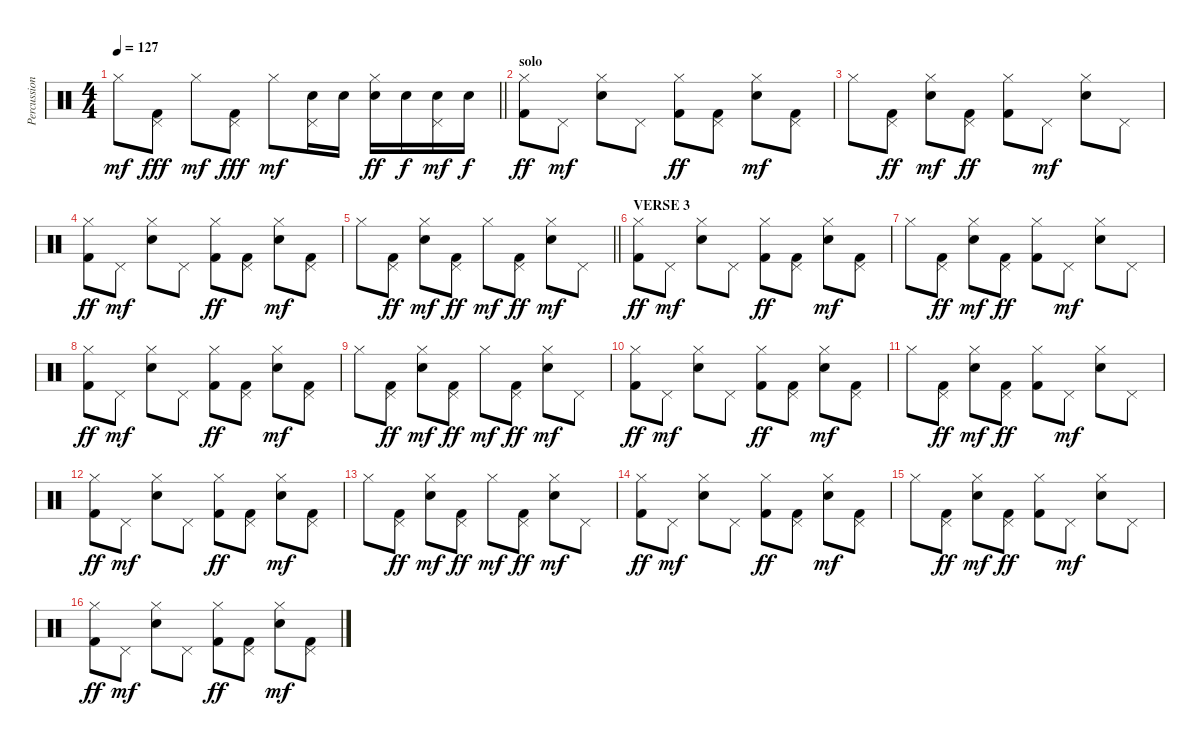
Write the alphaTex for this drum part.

\track ("Percussion" "Percussion") {instrument percussion}
\staff {score}
\articulation defaults
\ts (4 4)
\tempo 127
\clef neutral
\barLineRight lightlight
\ks c "Hi-Hat (closed)".8{dy mf}
("Pedal Hi-Hat (hit)" "Kick (hit) 2").8{dy fff} "Hi-Hat (closed)".8{dy mf} ("Pedal Hi-Hat (hit)" "Kick (hit) 2").8{dy fff} "Hi-Hat (closed)".8{dy mf} ("Pedal Hi-Hat (hit)" "Snare (hit) 2").16 "Snare (hit) 2".16 ("Hi-Hat (closed)" "Electric Snare (hit)").16{dy ff} "Snare (hit) 2".16{dy f} ("Pedal Hi-Hat (hit)" "Snare (hit) 2").16{dy mf} "Snare (hit) 2".16{dy f} |
\section ("" "solo")
("Hi-Hat (closed)" "Kick (hit) 2").8{dy ff} "Pedal Hi-Hat (hit)".8{dy mf} ("Hi-Hat (closed)" "Snare (hit) 2").8 "Pedal Hi-Hat (hit)".8 ("Hi-Hat (closed)" "Kick (hit) 2").8{dy ff} ("Pedal Hi-Hat (hit)" "Kick (hit) 2").8 ("Hi-Hat (closed)" "Snare (hit) 2").8{dy mf} ("Pedal Hi-Hat (hit)" "Kick (hit) 2").8 |
"Hi-Hat (closed)".8 ("Pedal Hi-Hat (hit)" "Kick (hit) 2").8{dy ff} ("Hi-Hat (closed)" "Snare (hit) 2").8{dy mf} ("Pedal Hi-Hat (hit)" "Kick (hit) 2").8{dy ff} ("Hi-Hat (closed)" "Kick (hit) 2").8 "Pedal Hi-Hat (hit)".8{dy mf} ("Hi-Hat (closed)" "Snare (hit) 2").8 "Pedal Hi-Hat (hit)".8 |
("Hi-Hat (closed)" "Kick (hit) 2").8{dy ff} "Pedal Hi-Hat (hit)".8{dy mf} ("Hi-Hat (closed)" "Snare (hit) 2").8 "Pedal Hi-Hat (hit)".8 ("Hi-Hat (closed)" "Kick (hit) 2").8{dy ff} ("Pedal Hi-Hat (hit)" "Kick (hit) 2").8 ("Hi-Hat (closed)" "Snare (hit) 2").8{dy mf} ("Pedal Hi-Hat (hit)" "Kick (hit) 2").8 |
\barLineRight lightlight "Hi-Hat (closed)".8
("Pedal Hi-Hat (hit)" "Kick (hit) 2").8{dy ff} ("Hi-Hat (closed)" "Snare (hit) 2").8{dy mf} ("Pedal Hi-Hat (hit)" "Kick (hit) 2").8{dy ff} "Hi-Hat (closed)".8{dy mf} ("Pedal Hi-Hat (hit)" "Kick (hit) 2").8{dy ff} ("Hi-Hat (closed)" "Snare (hit) 2").8{dy mf} "Pedal Hi-Hat (hit)".8 |
\section ("" "VERSE 3")
("Hi-Hat (closed)" "Kick (hit) 2").8{dy ff} "Pedal Hi-Hat (hit)".8{dy mf} ("Hi-Hat (closed)" "Snare (hit) 2").8 "Pedal Hi-Hat (hit)".8 ("Hi-Hat (closed)" "Kick (hit) 2").8{dy ff} ("Pedal Hi-Hat (hit)" "Kick (hit) 2").8 ("Hi-Hat (closed)" "Snare (hit) 2").8{dy mf} ("Pedal Hi-Hat (hit)" "Kick (hit) 2").8 |
"Hi-Hat (closed)".8 ("Pedal Hi-Hat (hit)" "Kick (hit) 2").8{dy ff} ("Hi-Hat (closed)" "Snare (hit) 2").8{dy mf} ("Pedal Hi-Hat (hit)" "Kick (hit) 2").8{dy ff} ("Hi-Hat (closed)" "Kick (hit) 2").8 "Pedal Hi-Hat (hit)".8{dy mf} ("Hi-Hat (closed)" "Snare (hit) 2").8 "Pedal Hi-Hat (hit)".8 |
("Hi-Hat (closed)" "Kick (hit) 2").8{dy ff} "Pedal Hi-Hat (hit)".8{dy mf} ("Hi-Hat (closed)" "Snare (hit) 2").8 "Pedal Hi-Hat (hit)".8 ("Hi-Hat (closed)" "Kick (hit) 2").8{dy ff} ("Pedal Hi-Hat (hit)" "Kick (hit) 2").8 ("Hi-Hat (closed)" "Snare (hit) 2").8{dy mf} ("Pedal Hi-Hat (hit)" "Kick (hit) 2").8 |
"Hi-Hat (closed)".8 ("Pedal Hi-Hat (hit)" "Kick (hit) 2").8{dy ff} ("Hi-Hat (closed)" "Snare (hit) 2").8{dy mf} ("Pedal Hi-Hat (hit)" "Kick (hit) 2").8{dy ff} "Hi-Hat (closed)".8{dy mf} ("Pedal Hi-Hat (hit)" "Kick (hit) 2").8{dy ff} ("Hi-Hat (closed)" "Snare (hit) 2").8{dy mf} "Pedal Hi-Hat (hit)".8 |
("Hi-Hat (closed)" "Kick (hit) 2").8{dy ff} "Pedal Hi-Hat (hit)".8{dy mf} ("Hi-Hat (closed)" "Snare (hit) 2").8 "Pedal Hi-Hat (hit)".8 ("Hi-Hat (closed)" "Kick (hit) 2").8{dy ff} ("Pedal Hi-Hat (hit)" "Kick (hit) 2").8 ("Hi-Hat (closed)" "Snare (hit) 2").8{dy mf} ("Pedal Hi-Hat (hit)" "Kick (hit) 2").8 |
"Hi-Hat (closed)".8 ("Pedal Hi-Hat (hit)" "Kick (hit) 2").8{dy ff} ("Hi-Hat (closed)" "Snare (hit) 2").8{dy mf} ("Pedal Hi-Hat (hit)" "Kick (hit) 2").8{dy ff} ("Hi-Hat (closed)" "Kick (hit) 2").8 "Pedal Hi-Hat (hit)".8{dy mf} ("Hi-Hat (closed)" "Snare (hit) 2").8 "Pedal Hi-Hat (hit)".8 |
("Hi-Hat (closed)" "Kick (hit) 2").8{dy ff} "Pedal Hi-Hat (hit)".8{dy mf} ("Hi-Hat (closed)" "Snare (hit) 2").8 "Pedal Hi-Hat (hit)".8 ("Hi-Hat (closed)" "Kick (hit) 2").8{dy ff} ("Pedal Hi-Hat (hit)" "Kick (hit) 2").8 ("Hi-Hat (closed)" "Snare (hit) 2").8{dy mf} ("Pedal Hi-Hat (hit)" "Kick (hit) 2").8 |
"Hi-Hat (closed)".8 ("Pedal Hi-Hat (hit)" "Kick (hit) 2").8{dy ff} ("Hi-Hat (closed)" "Snare (hit) 2").8{dy mf} ("Pedal Hi-Hat (hit)" "Kick (hit) 2").8{dy ff} "Hi-Hat (closed)".8{dy mf} ("Pedal Hi-Hat (hit)" "Kick (hit) 2").8{dy ff} ("Hi-Hat (closed)" "Snare (hit) 2").8{dy mf} "Pedal Hi-Hat (hit)".8 |
("Hi-Hat (closed)" "Kick (hit) 2").8{dy ff} "Pedal Hi-Hat (hit)".8{dy mf} ("Hi-Hat (closed)" "Snare (hit) 2").8 "Pedal Hi-Hat (hit)".8 ("Hi-Hat (closed)" "Kick (hit) 2").8{dy ff} ("Pedal Hi-Hat (hit)" "Kick (hit) 2").8 ("Hi-Hat (closed)" "Snare (hit) 2").8{dy mf} ("Pedal Hi-Hat (hit)" "Kick (hit) 2").8 |
"Hi-Hat (closed)".8 ("Pedal Hi-Hat (hit)" "Kick (hit) 2").8{dy ff} ("Hi-Hat (closed)" "Snare (hit) 2").8{dy mf} ("Pedal Hi-Hat (hit)" "Kick (hit) 2").8{dy ff} ("Hi-Hat (closed)" "Kick (hit) 2").8 "Pedal Hi-Hat (hit)".8{dy mf} ("Hi-Hat (closed)" "Snare (hit) 2").8 "Pedal Hi-Hat (hit)".8 |
("Hi-Hat (closed)" "Kick (hit) 2").8{dy ff} "Pedal Hi-Hat (hit)".8{dy mf} ("Hi-Hat (closed)" "Snare (hit) 2").8 "Pedal Hi-Hat (hit)".8 ("Hi-Hat (closed)" "Kick (hit) 2").8{dy ff} ("Pedal Hi-Hat (hit)" "Kick (hit) 2").8 ("Hi-Hat (closed)" "Snare (hit) 2").8{dy mf} ("Pedal Hi-Hat (hit)" "Kick (hit) 2").8
